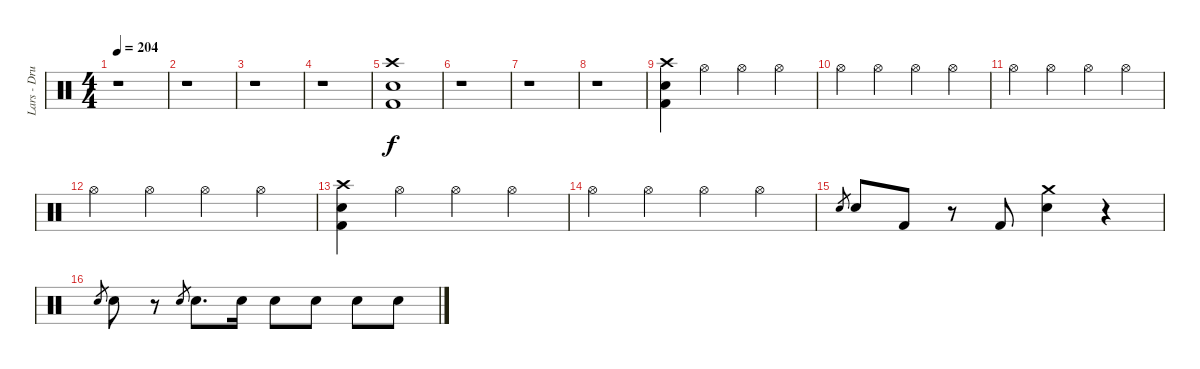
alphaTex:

\track ("Lars - Drums" "Lars - Dru") {instrument percussion}
\staff {score}
\articulation defaults
\ts (4 4)
\tempo 204
\clef neutral
\ks c
r.1{dy f} |
r.1 |
r.1 |
r.1 |
("Crash high (hit)" "Electric Snare (hit)" "Kick (hit) 2").1 |
r.1 |
r.1 |
r.1 |
("Crash high (hit)" "Electric Snare (hit)" "Kick (hit) 2").4 "Hi-Hat (open)".4 "Hi-Hat (open)".4 "Hi-Hat (open)".4 |
"Hi-Hat (open)".4 "Hi-Hat (open)".4 "Hi-Hat (open)".4 "Hi-Hat (open)".4 |
"Hi-Hat (open)".4 "Hi-Hat (open)".4 "Hi-Hat (open)".4 "Hi-Hat (open)".4 |
"Hi-Hat (open)".4 "Hi-Hat (open)".4 "Hi-Hat (open)".4 "Hi-Hat (open)".4 |
("Crash high (hit)" "Electric Snare (hit)" "Kick (hit) 2").4 "Hi-Hat (open)".4 "Hi-Hat (open)".4 "Hi-Hat (open)".4 |
"Hi-Hat (open)".4 "Hi-Hat (open)".4 "Hi-Hat (open)".4 "Hi-Hat (open)".4 |
"Electric Snare (hit)".8{gr} "Electric Snare (hit)".8 "Kick (hit) 2".8 r.8 "Kick (hit) 2".8 ("Crash medium (hit)" "Electric Snare (hit)").4 r.4 |
"Electric Snare (hit)"{sl}.8{gr} "Electric Snare (hit)".8 r.8 "Electric Snare (hit)"{sl}.8{gr} "Electric Snare (hit)".8{d} "Electric Snare (hit)".16 "Electric Snare (hit)".8 "Electric Snare (hit)".8 "Electric Snare (hit)".8 "Electric Snare (hit)".8
